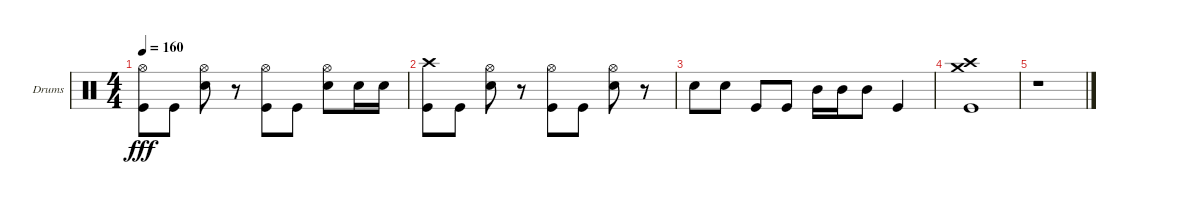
\bracketExtendMode groupsimilarinstruments
\firstSystemTrackNameOrientation horizontal
\otherSystemsTrackNameOrientation horizontal
\track ("Drumkit" "Drums") {instrument percussion}
\staff {score}
\articulation defaults
\ts (4 4)
\tempo 160
\clef neutral
\ks c
("Kick (hit)" "Hi-Hat (open)").8{dy fff} "Kick (hit)".8 ("Snare (hit) 2" "Hi-Hat (open)").8 r.8 ("Kick (hit)" "Hi-Hat (open)").8 "Kick (hit)".8 ("Snare (hit) 2" "Hi-Hat (open)").8 "Snare (hit) 2".16 "Snare (hit) 2".16 |
("Kick (hit)" "Crash high (hit)").8 "Kick (hit)".8 ("Snare (hit) 2" "Hi-Hat (open)").8 r.8 ("Kick (hit)" "Hi-Hat (open)").8 "Kick (hit)".8 ("Snare (hit) 2" "Hi-Hat (open)").8 r.8 |
"Snare (hit) 2".8 "Snare (hit) 2".8 "Kick (hit)".8 "Kick (hit)".8 "Mid Tom (hit)".16 "Mid Tom (hit)".16 "Mid Tom (hit)".8 "Kick (hit)".4 |
("Kick (hit)" "Crash medium (hit)" "Crash high (hit)").1 |
r.1
